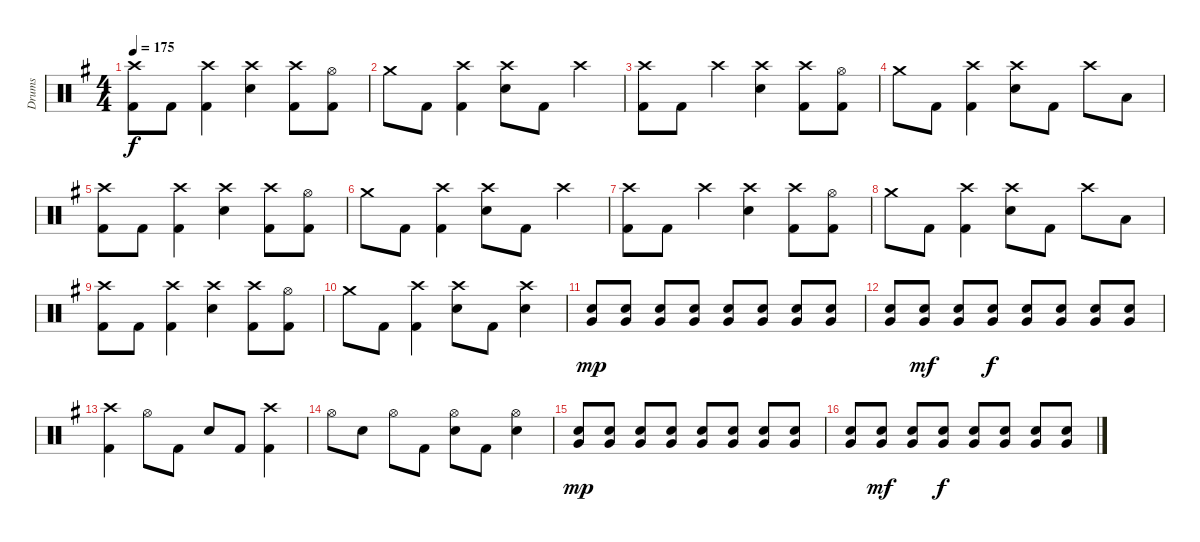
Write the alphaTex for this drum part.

\track ("Drums" "Drums") {instrument percussion}
\staff {score}
\articulation defaults
\ts (4 4)
\tempo 175
\clef neutral
\ks g
("Crash high (hit)" "Kick (hit) 2").8{dy f} "Kick (hit) 2".8 ("Crash high (hit)" "Kick (hit) 2").4 ("Crash high (hit)" "Electric Snare (hit)").4 ("Crash high (hit)" "Kick (hit) 2").8 ("Hi-Hat (open)" "Kick (hit) 2").8 |
"Crash medium (hit)".8 "Kick (hit) 2".8 ("Crash high (hit)" "Kick (hit) 2").4 ("Crash high (hit)" "Electric Snare (hit)").8 "Kick (hit) 2".8 "Crash high (hit)".4 |
("Crash high (hit)" "Kick (hit) 2").8 "Kick (hit) 2".8 "Crash high (hit)".4 ("Crash high (hit)" "Electric Snare (hit)").4 ("Crash high (hit)" "Kick (hit) 2").8 ("Hi-Hat (open)" "Kick (hit) 2").8 |
"Crash medium (hit)".8 "Kick (hit) 2".8 ("Crash high (hit)" "Kick (hit) 2").4 ("Crash high (hit)" "Electric Snare (hit)").8 "Kick (hit) 2".8 "Crash high (hit)".8 "Low Tom (hit)".8 |
("Crash high (hit)" "Kick (hit) 2").8 "Kick (hit) 2".8 ("Crash high (hit)" "Kick (hit) 2").4 ("Crash high (hit)" "Electric Snare (hit)").4 ("Crash high (hit)" "Kick (hit) 2").8 ("Hi-Hat (open)" "Kick (hit) 2").8 |
"Crash medium (hit)".8 "Kick (hit) 2".8 ("Crash high (hit)" "Kick (hit) 2").4 ("Crash high (hit)" "Electric Snare (hit)").8 "Kick (hit) 2".8 "Crash high (hit)".4 |
("Crash high (hit)" "Kick (hit) 2").8 "Kick (hit) 2".8 "Crash high (hit)".4 ("Crash high (hit)" "Electric Snare (hit)").4 ("Crash high (hit)" "Kick (hit) 2").8 ("Hi-Hat (open)" "Kick (hit) 2").8 |
"Crash medium (hit)".8 "Kick (hit) 2".8 ("Crash high (hit)" "Kick (hit) 2").4 ("Crash high (hit)" "Electric Snare (hit)").8 "Kick (hit) 2".8 "Crash high (hit)".8 "Low Tom (hit)".8 |
("Crash high (hit)" "Kick (hit) 2").8 "Kick (hit) 2".8 ("Crash high (hit)" "Kick (hit) 2").4 ("Crash high (hit)" "Electric Snare (hit)").4 ("Crash high (hit)" "Kick (hit) 2").8 ("Hi-Hat (open)" "Kick (hit) 2").8 |
"Crash medium (hit)".8 "Kick (hit) 2".8 ("Crash high (hit)" "Kick (hit) 2").4 ("Crash high (hit)" "Electric Snare (hit)").8 "Kick (hit) 2".8 ("Crash high (hit)" "Electric Snare (hit)").4 |
("Very Low Tom (hit)" "Electric Snare (hit)").8{dy mp} ("Very Low Tom (hit)" "Electric Snare (hit)").8 ("Very Low Tom (hit)" "Electric Snare (hit)").8 ("Very Low Tom (hit)" "Electric Snare (hit)").8 ("Very Low Tom (hit)" "Electric Snare (hit)").8 ("Very Low Tom (hit)" "Electric Snare (hit)").8 ("Very Low Tom (hit)" "Electric Snare (hit)").8 ("Very Low Tom (hit)" "Electric Snare (hit)").8 |
("Very Low Tom (hit)" "Electric Snare (hit)").8 ("Very Low Tom (hit)" "Electric Snare (hit)").8{dy mf} ("Very Low Tom (hit)" "Electric Snare (hit)").8 ("Very Low Tom (hit)" "Electric Snare (hit)").8{dy f} ("Very Low Tom (hit)" "Electric Snare (hit)").8 ("Very Low Tom (hit)" "Electric Snare (hit)").8 ("Very Low Tom (hit)" "Electric Snare (hit)").8 ("Very Low Tom (hit)" "Electric Snare (hit)").8 |
("Crash high (hit)" "Kick (hit) 2").4 "Hi-Hat (open)".8 "Kick (hit) 2".8 "Electric Snare (hit)".8 "Kick (hit) 2".8 ("Crash high (hit)" "Kick (hit) 2").4 |
"Hi-Hat (open)".8 "Electric Snare (hit)".8 "Hi-Hat (open)".8 "Kick (hit) 2".8 ("Hi-Hat (open)" "Electric Snare (hit)").8 "Kick (hit) 2".8 ("Hi-Hat (open)" "Electric Snare (hit)").4 |
("Very Low Tom (hit)" "Electric Snare (hit)").8{dy mp} ("Very Low Tom (hit)" "Electric Snare (hit)").8 ("Very Low Tom (hit)" "Electric Snare (hit)").8 ("Very Low Tom (hit)" "Electric Snare (hit)").8 ("Very Low Tom (hit)" "Electric Snare (hit)").8 ("Very Low Tom (hit)" "Electric Snare (hit)").8 ("Very Low Tom (hit)" "Electric Snare (hit)").8 ("Very Low Tom (hit)" "Electric Snare (hit)").8 |
("Very Low Tom (hit)" "Electric Snare (hit)").8 ("Very Low Tom (hit)" "Electric Snare (hit)").8{dy mf} ("Very Low Tom (hit)" "Electric Snare (hit)").8 ("Very Low Tom (hit)" "Electric Snare (hit)").8{dy f} ("Very Low Tom (hit)" "Electric Snare (hit)").8 ("Very Low Tom (hit)" "Electric Snare (hit)").8 ("Very Low Tom (hit)" "Electric Snare (hit)").8 ("Very Low Tom (hit)" "Electric Snare (hit)").8
